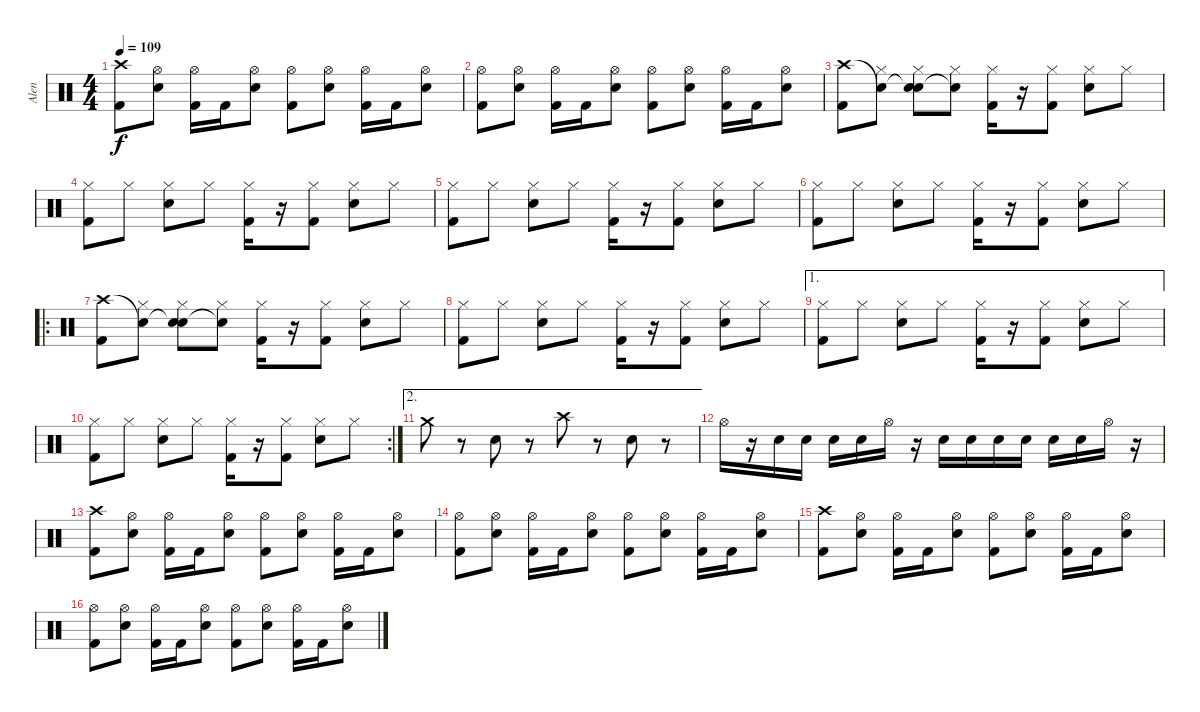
\track ("Alen" "Alen") {instrument percussion}
\staff {score}
\articulation defaults
\ts (4 4)
\tempo 109
\clef neutral
\ks c
("Crash high (hit)" "Kick (hit) 2").8{dy f} ("Hi-Hat (open)" "Electric Snare (hit)").8 ("Hi-Hat (open)" "Kick (hit) 2").16 "Kick (hit) 2".16 ("Hi-Hat (open)" "Electric Snare (hit)").8 ("Hi-Hat (open)" "Kick (hit) 2").8 ("Hi-Hat (open)" "Electric Snare (hit)").8 ("Hi-Hat (open)" "Kick (hit) 2").16 "Kick (hit) 2".16 ("Hi-Hat (open)" "Electric Snare (hit)").8 |
("Hi-Hat (open)" "Kick (hit) 2").8 ("Hi-Hat (open)" "Electric Snare (hit)").8 ("Hi-Hat (open)" "Kick (hit) 2").16 "Kick (hit) 2".16 ("Hi-Hat (open)" "Electric Snare (hit)").8 ("Hi-Hat (open)" "Kick (hit) 2").8 ("Hi-Hat (open)" "Electric Snare (hit)").8 ("Hi-Hat (open)" "Kick (hit) 2").16 "Kick (hit) 2".16 ("Hi-Hat (open)" "Electric Snare (hit)").8 |
("Crash high (hit)" "Kick (hit) 2").8 ("Snare (hit)"{t} "Hi-Hat (closed)").8 ("Snare (hit)"{t} "Hi-Hat (closed)" "Electric Snare (hit)").8 ("Snare (hit)"{t} "Hi-Hat (closed)").8 ("Hi-Hat (closed)" "Kick (hit) 2").16 r.16 ("Hi-Hat (closed)" "Kick (hit) 2").8 ("Hi-Hat (closed)" "Electric Snare (hit)").8 "Hi-Hat (closed)".8 |
("Hi-Hat (closed)" "Kick (hit) 2").8 "Hi-Hat (closed)".8 ("Hi-Hat (closed)" "Electric Snare (hit)").8 "Hi-Hat (closed)".8 ("Hi-Hat (closed)" "Kick (hit) 2").16 r.16 ("Hi-Hat (closed)" "Kick (hit) 2").8 ("Hi-Hat (closed)" "Electric Snare (hit)").8 "Hi-Hat (closed)".8 |
("Hi-Hat (closed)" "Kick (hit) 2").8 "Hi-Hat (closed)".8 ("Hi-Hat (closed)" "Electric Snare (hit)").8 "Hi-Hat (closed)".8 ("Hi-Hat (closed)" "Kick (hit) 2").16 r.16 ("Hi-Hat (closed)" "Kick (hit) 2").8 ("Hi-Hat (closed)" "Electric Snare (hit)").8 "Hi-Hat (closed)".8 |
("Hi-Hat (closed)" "Kick (hit) 2").8 "Hi-Hat (closed)".8 ("Hi-Hat (closed)" "Electric Snare (hit)").8 "Hi-Hat (closed)".8 ("Hi-Hat (closed)" "Kick (hit) 2").16 r.16 ("Hi-Hat (closed)" "Kick (hit) 2").8 ("Hi-Hat (closed)" "Electric Snare (hit)").8 "Hi-Hat (closed)".8 |
\ro
("Crash high (hit)" "Kick (hit) 2").8 ("Snare (hit)"{t} "Hi-Hat (closed)").8 ("Snare (hit)"{t} "Hi-Hat (closed)" "Electric Snare (hit)").8 ("Snare (hit)"{t} "Hi-Hat (closed)").8 ("Hi-Hat (closed)" "Kick (hit) 2").16 r.16 ("Hi-Hat (closed)" "Kick (hit) 2").8 ("Hi-Hat (closed)" "Electric Snare (hit)").8 "Hi-Hat (closed)".8 |
("Hi-Hat (closed)" "Kick (hit) 2").8 "Hi-Hat (closed)".8 ("Hi-Hat (closed)" "Electric Snare (hit)").8 "Hi-Hat (closed)".8 ("Hi-Hat (closed)" "Kick (hit) 2").16 r.16 ("Hi-Hat (closed)" "Kick (hit) 2").8 ("Hi-Hat (closed)" "Electric Snare (hit)").8 "Hi-Hat (closed)".8 |
\ae 1
("Hi-Hat (closed)" "Kick (hit) 2").8 "Hi-Hat (closed)".8 ("Hi-Hat (closed)" "Electric Snare (hit)").8 "Hi-Hat (closed)".8 ("Hi-Hat (closed)" "Kick (hit) 2").16 r.16 ("Hi-Hat (closed)" "Kick (hit) 2").8 ("Hi-Hat (closed)" "Electric Snare (hit)").8 "Hi-Hat (closed)".8 |
\rc 2
("Hi-Hat (closed)" "Kick (hit) 2").8 "Hi-Hat (closed)".8 ("Hi-Hat (closed)" "Electric Snare (hit)").8 "Hi-Hat (closed)".8 ("Hi-Hat (closed)" "Kick (hit) 2").16 r.16 ("Hi-Hat (closed)" "Kick (hit) 2").8 ("Hi-Hat (closed)" "Electric Snare (hit)").8 "Hi-Hat (closed)".8 |
\ae 2 "Crash medium (hit)".8
r.8 "Electric Snare (hit)".8 r.8 "Crash high (hit)".8 r.8 "Electric Snare (hit)".8 r.8 |
"Hi-Hat (open)".16 r.16 "Electric Snare (hit)".16 "Electric Snare (hit)".16 "Electric Snare (hit)".16 "Electric Snare (hit)".16 "Hi-Hat (open)".16 r.16 "Electric Snare (hit)".16 "Electric Snare (hit)".16 "Electric Snare (hit)".16 "Electric Snare (hit)".16 "Electric Snare (hit)".16 "Electric Snare (hit)".16 "Hi-Hat (open)".16 r.16 |
("Crash high (hit)" "Kick (hit) 2").8 ("Hi-Hat (open)" "Electric Snare (hit)").8 ("Hi-Hat (open)" "Kick (hit) 2").16 "Kick (hit) 2".16 ("Hi-Hat (open)" "Electric Snare (hit)").8 ("Hi-Hat (open)" "Kick (hit) 2").8 ("Hi-Hat (open)" "Electric Snare (hit)").8 ("Hi-Hat (open)" "Kick (hit) 2").16 "Kick (hit) 2".16 ("Hi-Hat (open)" "Electric Snare (hit)").8 |
("Hi-Hat (open)" "Kick (hit) 2").8 ("Hi-Hat (open)" "Electric Snare (hit)").8 ("Hi-Hat (open)" "Kick (hit) 2").16 "Kick (hit) 2".16 ("Hi-Hat (open)" "Electric Snare (hit)").8 ("Hi-Hat (open)" "Kick (hit) 2").8 ("Hi-Hat (open)" "Electric Snare (hit)").8 ("Hi-Hat (open)" "Kick (hit) 2").16 "Kick (hit) 2".16 ("Hi-Hat (open)" "Electric Snare (hit)").8 |
("Crash high (hit)" "Kick (hit) 2").8 ("Hi-Hat (open)" "Electric Snare (hit)").8 ("Hi-Hat (open)" "Kick (hit) 2").16 "Kick (hit) 2".16 ("Hi-Hat (open)" "Electric Snare (hit)").8 ("Hi-Hat (open)" "Kick (hit) 2").8 ("Hi-Hat (open)" "Electric Snare (hit)").8 ("Hi-Hat (open)" "Kick (hit) 2").16 "Kick (hit) 2".16 ("Hi-Hat (open)" "Electric Snare (hit)").8 |
("Hi-Hat (open)" "Kick (hit) 2").8 ("Hi-Hat (open)" "Electric Snare (hit)").8 ("Hi-Hat (open)" "Kick (hit) 2").16 "Kick (hit) 2".16 ("Hi-Hat (open)" "Electric Snare (hit)").8 ("Hi-Hat (open)" "Kick (hit) 2").8 ("Hi-Hat (open)" "Electric Snare (hit)").8 ("Hi-Hat (open)" "Kick (hit) 2").16 "Kick (hit) 2".16 ("Hi-Hat (open)" "Electric Snare (hit)").8
